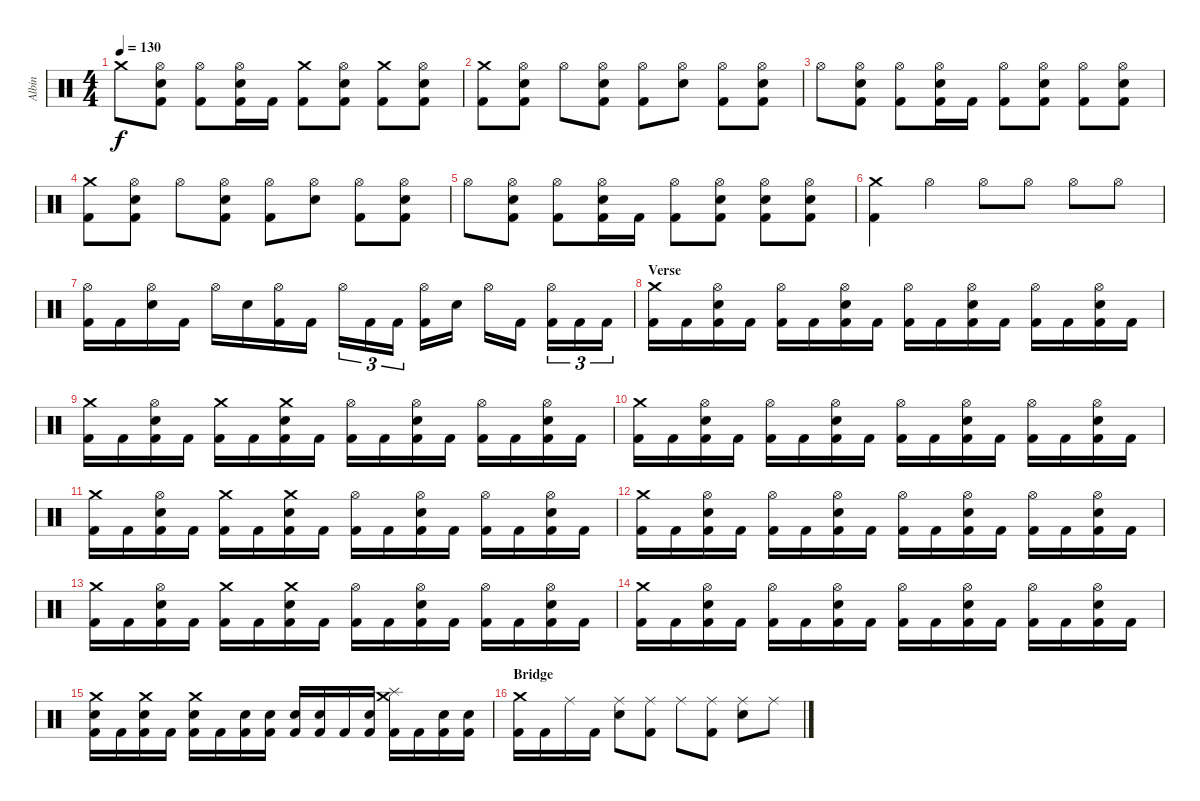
\track ("Albin" "Albin") {instrument percussion}
\staff {score}
\articulation defaults
\ts (4 4)
\tempo 130
\clef neutral
\ks c "Crash medium (hit)".8{dy f}
("Hi-Hat (open)" "Electric Snare (hit)" "Kick (hit) 2").8 ("Hi-Hat (open)" "Kick (hit) 2").8 ("Hi-Hat (open)" "Electric Snare (hit)" "Kick (hit) 2").16 "Kick (hit) 2".16 ("Crash medium (hit)" "Kick (hit) 2").8 ("Hi-Hat (open)" "Electric Snare (hit)" "Kick (hit) 2").8 ("Crash medium (hit)" "Kick (hit) 2").8 ("Hi-Hat (open)" "Electric Snare (hit)" "Kick (hit) 2").8 |
("Crash medium (hit)" "Kick (hit) 2").8 ("Hi-Hat (open)" "Electric Snare (hit)" "Kick (hit) 2").8 "Hi-Hat (open)".8 ("Hi-Hat (open)" "Electric Snare (hit)" "Kick (hit) 2").8 ("Hi-Hat (open)" "Kick (hit) 2").8 ("Hi-Hat (open)" "Electric Snare (hit)").8 ("Hi-Hat (open)" "Kick (hit) 2").8 ("Hi-Hat (open)" "Electric Snare (hit)" "Kick (hit) 2").8 |
"Hi-Hat (open)".8 ("Hi-Hat (open)" "Electric Snare (hit)" "Kick (hit) 2").8 ("Hi-Hat (open)" "Kick (hit) 2").8 ("Hi-Hat (open)" "Electric Snare (hit)" "Kick (hit) 2").16 "Kick (hit) 2".16 ("Hi-Hat (open)" "Kick (hit) 2").8 ("Hi-Hat (open)" "Electric Snare (hit)" "Kick (hit) 2").8 ("Hi-Hat (open)" "Kick (hit) 2").8 ("Hi-Hat (open)" "Electric Snare (hit)" "Kick (hit) 2").8 |
("Crash medium (hit)" "Kick (hit) 2").8 ("Hi-Hat (open)" "Electric Snare (hit)" "Kick (hit) 2").8 "Hi-Hat (open)".8 ("Hi-Hat (open)" "Electric Snare (hit)" "Kick (hit) 2").8 ("Hi-Hat (open)" "Kick (hit) 2").8 ("Hi-Hat (open)" "Electric Snare (hit)").8 ("Hi-Hat (open)" "Kick (hit) 2").8 ("Hi-Hat (open)" "Electric Snare (hit)" "Kick (hit) 2").8 |
"Hi-Hat (open)".8 ("Hi-Hat (open)" "Electric Snare (hit)" "Kick (hit) 2").8 ("Hi-Hat (open)" "Kick (hit) 2").8 ("Hi-Hat (open)" "Electric Snare (hit)" "Kick (hit) 2").16 "Kick (hit) 2".16 ("Hi-Hat (open)" "Kick (hit) 2").8 ("Hi-Hat (open)" "Electric Snare (hit)" "Kick (hit) 2").8 ("Hi-Hat (open)" "Electric Snare (hit)" "Kick (hit) 2").8 ("Hi-Hat (open)" "Electric Snare (hit)" "Kick (hit) 2").8 |
("Crash medium (hit)" "Kick (hit) 2").4 "Hi-Hat (open)".4 "Hi-Hat (open)".8 "Hi-Hat (open)".8 "Hi-Hat (open)".8 "Hi-Hat (open)".8 |
("Hi-Hat (open)" "Kick (hit) 2").16 "Kick (hit) 2".16 ("Hi-Hat (open)" "Electric Snare (hit)").16 "Kick (hit) 2".16 "Hi-Hat (open)".16 "Electric Snare (hit)".16 ("Hi-Hat (open)" "Kick (hit) 2").16 "Kick (hit) 2".16 "Hi-Hat (open)".16{tu (3 2)} "Kick (hit) 2".16{tu (3 2)} "Kick (hit) 2".16{tu (3 2)} ("Hi-Hat (open)" "Kick (hit) 2").16 "Electric Snare (hit)".16 "Hi-Hat (open)".16 "Kick (hit) 2".16 ("Hi-Hat (open)" "Kick (hit) 2").16{tu (3 2)} "Kick (hit) 2".16{tu (3 2)} "Kick (hit) 2".16{tu (3 2)} |
\section ("" "Verse")
("Crash medium (hit)" "Kick (hit) 2").16 "Kick (hit) 2".16 ("Hi-Hat (open)" "Electric Snare (hit)" "Kick (hit) 2").16 "Kick (hit) 2".16 ("Hi-Hat (open)" "Kick (hit) 2").16 "Kick (hit) 2".16 ("Hi-Hat (open)" "Electric Snare (hit)" "Kick (hit) 2").16 "Kick (hit) 2".16 ("Hi-Hat (open)" "Kick (hit) 2").16 "Kick (hit) 2".16 ("Hi-Hat (open)" "Electric Snare (hit)" "Kick (hit) 2").16 "Kick (hit) 2".16 ("Hi-Hat (open)" "Kick (hit) 2").16 "Kick (hit) 2".16 ("Hi-Hat (open)" "Electric Snare (hit)" "Kick (hit) 2").16 "Kick (hit) 2".16 |
("Crash medium (hit)" "Kick (hit) 2").16 "Kick (hit) 2".16 ("Hi-Hat (open)" "Electric Snare (hit)" "Kick (hit) 2").16 "Kick (hit) 2".16 ("Crash medium (hit)" "Kick (hit) 2").16 "Kick (hit) 2".16 ("Crash medium (hit)" "Electric Snare (hit)" "Kick (hit) 2").16 "Kick (hit) 2".16 ("Hi-Hat (open)" "Kick (hit) 2").16 "Kick (hit) 2".16 ("Hi-Hat (open)" "Electric Snare (hit)" "Kick (hit) 2").16 "Kick (hit) 2".16 ("Hi-Hat (open)" "Kick (hit) 2").16 "Kick (hit) 2".16 ("Hi-Hat (open)" "Electric Snare (hit)" "Kick (hit) 2").16 "Kick (hit) 2".16 |
("Crash medium (hit)" "Kick (hit) 2").16 "Kick (hit) 2".16 ("Hi-Hat (open)" "Electric Snare (hit)" "Kick (hit) 2").16 "Kick (hit) 2".16 ("Hi-Hat (open)" "Kick (hit) 2").16 "Kick (hit) 2".16 ("Hi-Hat (open)" "Electric Snare (hit)" "Kick (hit) 2").16 "Kick (hit) 2".16 ("Hi-Hat (open)" "Kick (hit) 2").16 "Kick (hit) 2".16 ("Hi-Hat (open)" "Electric Snare (hit)" "Kick (hit) 2").16 "Kick (hit) 2".16 ("Hi-Hat (open)" "Kick (hit) 2").16 "Kick (hit) 2".16 ("Hi-Hat (open)" "Electric Snare (hit)" "Kick (hit) 2").16 "Kick (hit) 2".16 |
("Crash medium (hit)" "Kick (hit) 2").16 "Kick (hit) 2".16 ("Hi-Hat (open)" "Electric Snare (hit)" "Kick (hit) 2").16 "Kick (hit) 2".16 ("Crash medium (hit)" "Kick (hit) 2").16 "Kick (hit) 2".16 ("Crash medium (hit)" "Electric Snare (hit)" "Kick (hit) 2").16 "Kick (hit) 2".16 ("Hi-Hat (open)" "Kick (hit) 2").16 "Kick (hit) 2".16 ("Hi-Hat (open)" "Electric Snare (hit)" "Kick (hit) 2").16 "Kick (hit) 2".16 ("Hi-Hat (open)" "Kick (hit) 2").16 "Kick (hit) 2".16 ("Hi-Hat (open)" "Electric Snare (hit)" "Kick (hit) 2").16 "Kick (hit) 2".16 |
("Crash medium (hit)" "Kick (hit) 2").16 "Kick (hit) 2".16 ("Hi-Hat (open)" "Electric Snare (hit)" "Kick (hit) 2").16 "Kick (hit) 2".16 ("Hi-Hat (open)" "Kick (hit) 2").16 "Kick (hit) 2".16 ("Hi-Hat (open)" "Electric Snare (hit)" "Kick (hit) 2").16 "Kick (hit) 2".16 ("Hi-Hat (open)" "Kick (hit) 2").16 "Kick (hit) 2".16 ("Hi-Hat (open)" "Electric Snare (hit)" "Kick (hit) 2").16 "Kick (hit) 2".16 ("Hi-Hat (open)" "Kick (hit) 2").16 "Kick (hit) 2".16 ("Hi-Hat (open)" "Electric Snare (hit)" "Kick (hit) 2").16 "Kick (hit) 2".16 |
("Crash medium (hit)" "Kick (hit) 2").16 "Kick (hit) 2".16 ("Hi-Hat (open)" "Electric Snare (hit)" "Kick (hit) 2").16 "Kick (hit) 2".16 ("Crash medium (hit)" "Kick (hit) 2").16 "Kick (hit) 2".16 ("Crash medium (hit)" "Electric Snare (hit)" "Kick (hit) 2").16 "Kick (hit) 2".16 ("Hi-Hat (open)" "Kick (hit) 2").16 "Kick (hit) 2".16 ("Hi-Hat (open)" "Electric Snare (hit)" "Kick (hit) 2").16 "Kick (hit) 2".16 ("Hi-Hat (open)" "Kick (hit) 2").16 "Kick (hit) 2".16 ("Hi-Hat (open)" "Electric Snare (hit)" "Kick (hit) 2").16 "Kick (hit) 2".16 |
("Crash medium (hit)" "Kick (hit) 2").16 "Kick (hit) 2".16 ("Hi-Hat (open)" "Electric Snare (hit)" "Kick (hit) 2").16 "Kick (hit) 2".16 ("Hi-Hat (open)" "Kick (hit) 2").16 "Kick (hit) 2".16 ("Hi-Hat (open)" "Electric Snare (hit)" "Kick (hit) 2").16 "Kick (hit) 2".16 ("Hi-Hat (open)" "Kick (hit) 2").16 "Kick (hit) 2".16 ("Hi-Hat (open)" "Electric Snare (hit)" "Kick (hit) 2").16 "Kick (hit) 2".16 ("Hi-Hat (open)" "Kick (hit) 2").16 "Kick (hit) 2".16 ("Hi-Hat (open)" "Electric Snare (hit)" "Kick (hit) 2").16 "Kick (hit) 2".16 |
("Crash medium (hit)" "Electric Snare (hit)" "Kick (hit) 2").16 "Kick (hit) 2".16 ("Crash medium (hit)" "Electric Snare (hit)" "Kick (hit) 2").16 "Kick (hit) 2".16 ("Crash medium (hit)" "Electric Snare (hit)" "Kick (hit) 2").16 "Kick (hit) 2".16 ("Electric Snare (hit)" "Kick (hit) 2").16 ("Electric Snare (hit)" "Kick (hit) 2").16 ("Electric Snare (hit)" "Kick (hit) 2").16 ("Electric Snare (hit)" "Kick (hit) 2").16 "Kick (hit) 2".16 ("Electric Snare (hit)" "Kick (hit) 2").16 ("Crash medium (hit)" "Splash (hit)" "Kick (hit) 2").16 "Kick (hit) 2".16 ("Electric Snare (hit)" "Kick (hit) 2").16 ("Electric Snare (hit)" "Kick (hit) 2").16 |
\section ("" "Bridge")
("Crash medium (hit)" "Kick (hit) 2").16 "Kick (hit) 2".16 "Ride (middle)".16 "Kick (hit) 2".16 ("Ride (middle)" "Electric Snare (hit)").8 ("Ride (middle)" "Kick (hit) 2").8 "Ride (middle)".8 ("Ride (middle)" "Kick (hit) 2").8 ("Ride (middle)" "Electric Snare (hit)").8 "Ride (middle)".8
